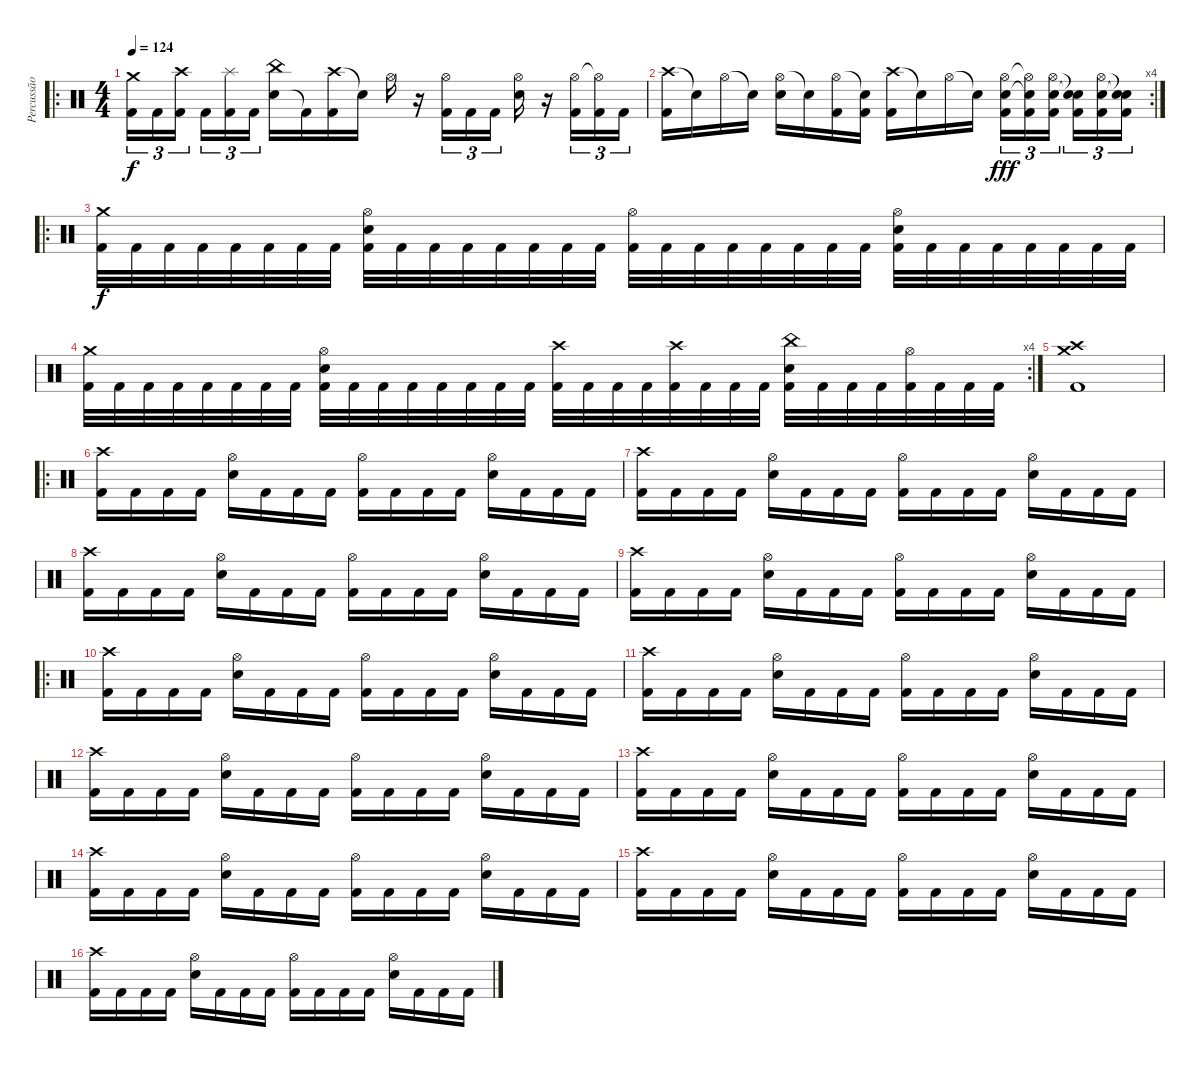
\track ("Percussão" "Percussão") {instrument percussion}
\staff {score}
\articulation defaults
\ro
\ts (4 4)
\tempo 124
\clef neutral
\ks c
("Kick (hit) 2" "Crash medium (hit)").16{tu (3 2) dy f} "Kick (hit) 2".16{tu (3 2)} ("Kick (hit) 2" "Crash high (hit)").16{tu (3 2)} "Kick (hit) 2".16{tu (3 2)} ("Kick (hit) 2" "Splash (hit)").16{tu (3 2)} "Kick (hit) 2".16{tu (3 2)} ("Electric Snare (hit)" "China (hit)").16 "Kick (hit) 2"{t}.16 ("Crash high (hit)" "Kick (hit) 2").16 "Snare (hit)"{t}.16 "Hi-Hat (open)".16 r.16 ("Hi-Hat (open)" "Kick (hit) 2").16{tu (3 2)} "Kick (hit) 2".16{tu (3 2)} "Kick (hit) 2".16{tu (3 2)} ("Hi-Hat (open)" "Electric Snare (hit)").16 r.16 ("Hi-Hat (open)" "Kick (hit) 2").16{tu (3 2)} ("Hi-Hat (open)"{t} "Kick (hit) 2").16{tu (3 2)} "Kick (hit) 2".16{tu (3 2)} |
\rc 4
("Crash high (hit)" "Kick (hit) 2").16 "Snare (hit)"{t}.16 "Hi-Hat (open)".16 "Snare (hit)"{t}.16 ("Hi-Hat (open)" "Electric Snare (hit)").16 "Snare (hit)"{t}.16 ("Hi-Hat (open)" "Kick (hit) 2").16 ("Snare (hit)"{t} "Kick (hit) 2").16 ("Crash high (hit)" "Kick (hit) 2").16 "Snare (hit)"{t}.16 "Hi-Hat (open)".16 "Snare (hit)"{t}.16 ("Electric Snare (hit)" "Hi-Hat (open)" "Kick (hit) 2").16{tu (3 2) dy fff} ("Electric Snare (hit)"{t} "Hi-Hat (open)"{t} "Kick (hit) 2").16{tu (3 2)} ("Electric Snare (hit)" "Hi-Hat (open)" "Kick (hit) 2").16{tu (3 2)} ("Snare (hit)"{t} "Snare (hit)"{t} "Kick (hit) 2").16{tu (3 2)} ("Electric Snare (hit)" "Hi-Hat (open)" "Kick (hit) 2").16{tu (3 2)} ("Snare (hit)"{t} "Snare (hit)"{t} "Kick (hit) 2").16{tu (3 2)} |
\ro
("Crash medium (hit)" "Kick (hit) 2").32{dy f} "Kick (hit) 2".32 "Kick (hit) 2".32 "Kick (hit) 2".32 "Kick (hit) 2".32 "Kick (hit) 2".32 "Kick (hit) 2".32 "Kick (hit) 2".32 ("Hi-Hat (open)" "Kick (hit) 2" "Electric Snare (hit)").32 "Kick (hit) 2".32 "Kick (hit) 2".32 "Kick (hit) 2".32 "Kick (hit) 2".32 "Kick (hit) 2".32 "Kick (hit) 2".32 "Kick (hit) 2".32 ("Hi-Hat (open)" "Kick (hit) 2").32 "Kick (hit) 2".32 "Kick (hit) 2".32 "Kick (hit) 2".32 "Kick (hit) 2".32 "Kick (hit) 2".32 "Kick (hit) 2".32 "Kick (hit) 2".32 ("Hi-Hat (open)" "Kick (hit) 2" "Electric Snare (hit)").32 "Kick (hit) 2".32 "Kick (hit) 2".32 "Kick (hit) 2".32 "Kick (hit) 2".32 "Kick (hit) 2".32 "Kick (hit) 2".32 "Kick (hit) 2".32 |
\rc 4
("Crash medium (hit)" "Kick (hit) 2").32 "Kick (hit) 2".32 "Kick (hit) 2".32 "Kick (hit) 2".32 "Kick (hit) 2".32 "Kick (hit) 2".32 "Kick (hit) 2".32 "Kick (hit) 2".32 ("Hi-Hat (open)" "Kick (hit) 2" "Electric Snare (hit)").32 "Kick (hit) 2".32 "Kick (hit) 2".32 "Kick (hit) 2".32 "Kick (hit) 2".32 "Kick (hit) 2".32 "Kick (hit) 2".32 "Kick (hit) 2".32 ("Crash high (hit)" "Kick (hit) 2").32 "Kick (hit) 2".32 "Kick (hit) 2".32 "Kick (hit) 2".32 ("Crash high (hit)" "Kick (hit) 2").32 "Kick (hit) 2".32 "Kick (hit) 2".32 "Kick (hit) 2".32 ("China (hit)" "Kick (hit) 2" "Electric Snare (hit)").32 "Kick (hit) 2".32 "Kick (hit) 2".32 "Kick (hit) 2".32 ("Hi-Hat (open)" "Kick (hit) 2").32 "Kick (hit) 2".32 "Kick (hit) 2".32 "Kick (hit) 2".32 |
("Kick (hit) 2" "Crash medium (hit)" "Crash high (hit)").1 |
\ro
("Crash high (hit)" "Kick (hit) 2").16 "Kick (hit) 2".16 "Kick (hit) 2".16 "Kick (hit) 2".16 ("Hi-Hat (open)" "Electric Snare (hit)").16 "Kick (hit) 2".16 "Kick (hit) 2".16 "Kick (hit) 2".16 ("Hi-Hat (open)" "Kick (hit) 2").16 "Kick (hit) 2".16 "Kick (hit) 2".16 "Kick (hit) 2".16 ("Hi-Hat (open)" "Electric Snare (hit)").16 "Kick (hit) 2".16 "Kick (hit) 2".16 "Kick (hit) 2".16 |
("Crash high (hit)" "Kick (hit) 2").16 "Kick (hit) 2".16 "Kick (hit) 2".16 "Kick (hit) 2".16 ("Hi-Hat (open)" "Electric Snare (hit)").16 "Kick (hit) 2".16 "Kick (hit) 2".16 "Kick (hit) 2".16 ("Hi-Hat (open)" "Kick (hit) 2").16 "Kick (hit) 2".16 "Kick (hit) 2".16 "Kick (hit) 2".16 ("Hi-Hat (open)" "Electric Snare (hit)").16 "Kick (hit) 2".16 "Kick (hit) 2".16 "Kick (hit) 2".16 |
("Crash high (hit)" "Kick (hit) 2").16 "Kick (hit) 2".16 "Kick (hit) 2".16 "Kick (hit) 2".16 ("Hi-Hat (open)" "Electric Snare (hit)").16 "Kick (hit) 2".16 "Kick (hit) 2".16 "Kick (hit) 2".16 ("Hi-Hat (open)" "Kick (hit) 2").16 "Kick (hit) 2".16 "Kick (hit) 2".16 "Kick (hit) 2".16 ("Hi-Hat (open)" "Electric Snare (hit)").16 "Kick (hit) 2".16 "Kick (hit) 2".16 "Kick (hit) 2".16 |
("Crash high (hit)" "Kick (hit) 2").16 "Kick (hit) 2".16 "Kick (hit) 2".16 "Kick (hit) 2".16 ("Hi-Hat (open)" "Electric Snare (hit)").16 "Kick (hit) 2".16 "Kick (hit) 2".16 "Kick (hit) 2".16 ("Hi-Hat (open)" "Kick (hit) 2").16 "Kick (hit) 2".16 "Kick (hit) 2".16 "Kick (hit) 2".16 ("Hi-Hat (open)" "Electric Snare (hit)").16 "Kick (hit) 2".16 "Kick (hit) 2".16 "Kick (hit) 2".16 |
\ro
("Crash high (hit)" "Kick (hit) 2").16 "Kick (hit) 2".16 "Kick (hit) 2".16 "Kick (hit) 2".16 ("Hi-Hat (open)" "Electric Snare (hit)").16 "Kick (hit) 2".16 "Kick (hit) 2".16 "Kick (hit) 2".16 ("Hi-Hat (open)" "Kick (hit) 2").16 "Kick (hit) 2".16 "Kick (hit) 2".16 "Kick (hit) 2".16 ("Hi-Hat (open)" "Electric Snare (hit)").16 "Kick (hit) 2".16 "Kick (hit) 2".16 "Kick (hit) 2".16 |
("Crash high (hit)" "Kick (hit) 2").16 "Kick (hit) 2".16 "Kick (hit) 2".16 "Kick (hit) 2".16 ("Hi-Hat (open)" "Electric Snare (hit)").16 "Kick (hit) 2".16 "Kick (hit) 2".16 "Kick (hit) 2".16 ("Hi-Hat (open)" "Kick (hit) 2").16 "Kick (hit) 2".16 "Kick (hit) 2".16 "Kick (hit) 2".16 ("Hi-Hat (open)" "Electric Snare (hit)").16 "Kick (hit) 2".16 "Kick (hit) 2".16 "Kick (hit) 2".16 |
("Crash high (hit)" "Kick (hit) 2").16 "Kick (hit) 2".16 "Kick (hit) 2".16 "Kick (hit) 2".16 ("Hi-Hat (open)" "Electric Snare (hit)").16 "Kick (hit) 2".16 "Kick (hit) 2".16 "Kick (hit) 2".16 ("Hi-Hat (open)" "Kick (hit) 2").16 "Kick (hit) 2".16 "Kick (hit) 2".16 "Kick (hit) 2".16 ("Hi-Hat (open)" "Electric Snare (hit)").16 "Kick (hit) 2".16 "Kick (hit) 2".16 "Kick (hit) 2".16 |
("Crash high (hit)" "Kick (hit) 2").16 "Kick (hit) 2".16 "Kick (hit) 2".16 "Kick (hit) 2".16 ("Hi-Hat (open)" "Electric Snare (hit)").16 "Kick (hit) 2".16 "Kick (hit) 2".16 "Kick (hit) 2".16 ("Hi-Hat (open)" "Kick (hit) 2").16 "Kick (hit) 2".16 "Kick (hit) 2".16 "Kick (hit) 2".16 ("Hi-Hat (open)" "Electric Snare (hit)").16 "Kick (hit) 2".16 "Kick (hit) 2".16 "Kick (hit) 2".16 |
("Crash high (hit)" "Kick (hit) 2").16 "Kick (hit) 2".16 "Kick (hit) 2".16 "Kick (hit) 2".16 ("Hi-Hat (open)" "Electric Snare (hit)").16 "Kick (hit) 2".16 "Kick (hit) 2".16 "Kick (hit) 2".16 ("Hi-Hat (open)" "Kick (hit) 2").16 "Kick (hit) 2".16 "Kick (hit) 2".16 "Kick (hit) 2".16 ("Hi-Hat (open)" "Electric Snare (hit)").16 "Kick (hit) 2".16 "Kick (hit) 2".16 "Kick (hit) 2".16 |
("Crash high (hit)" "Kick (hit) 2").16 "Kick (hit) 2".16 "Kick (hit) 2".16 "Kick (hit) 2".16 ("Hi-Hat (open)" "Electric Snare (hit)").16 "Kick (hit) 2".16 "Kick (hit) 2".16 "Kick (hit) 2".16 ("Hi-Hat (open)" "Kick (hit) 2").16 "Kick (hit) 2".16 "Kick (hit) 2".16 "Kick (hit) 2".16 ("Hi-Hat (open)" "Electric Snare (hit)").16 "Kick (hit) 2".16 "Kick (hit) 2".16 "Kick (hit) 2".16 |
("Crash high (hit)" "Kick (hit) 2").16 "Kick (hit) 2".16 "Kick (hit) 2".16 "Kick (hit) 2".16 ("Hi-Hat (open)" "Electric Snare (hit)").16 "Kick (hit) 2".16 "Kick (hit) 2".16 "Kick (hit) 2".16 ("Hi-Hat (open)" "Kick (hit) 2").16 "Kick (hit) 2".16 "Kick (hit) 2".16 "Kick (hit) 2".16 ("Hi-Hat (open)" "Electric Snare (hit)").16 "Kick (hit) 2".16 "Kick (hit) 2".16 "Kick (hit) 2".16
